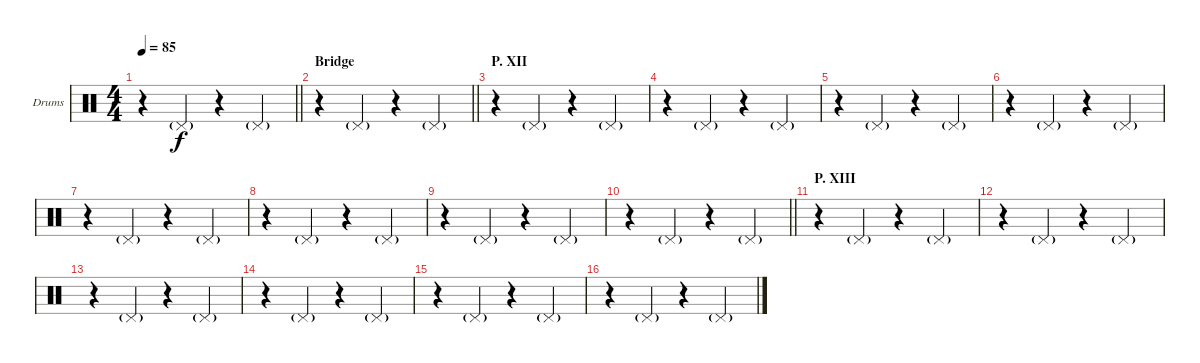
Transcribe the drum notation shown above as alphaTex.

\bracketExtendMode groupsimilarinstruments
\firstSystemTrackNameOrientation horizontal
\otherSystemsTrackNameOrientation horizontal
\track ("Drumkit" "Drums") {instrument percussion}
\staff {score}
\articulation defaults
\ts (4 4)
\tempo 85
\clef neutral
\barLineRight lightlight
\ks c
r.4{dy f} "Pedal Hi-Hat (hit)"{g}.4 r.4 "Pedal Hi-Hat (hit)"{g}.4 |
\section ("" "Bridge")
\barLineRight lightlight
r.4 "Pedal Hi-Hat (hit)"{g}.4 r.4 "Pedal Hi-Hat (hit)"{g}.4 |
\section ("" "P. XII")
r.4 "Pedal Hi-Hat (hit)"{g}.4 r.4 "Pedal Hi-Hat (hit)"{g}.4 |
r.4 "Pedal Hi-Hat (hit)"{g}.4 r.4 "Pedal Hi-Hat (hit)"{g}.4 |
r.4 "Pedal Hi-Hat (hit)"{g}.4 r.4 "Pedal Hi-Hat (hit)"{g}.4 |
r.4 "Pedal Hi-Hat (hit)"{g}.4 r.4 "Pedal Hi-Hat (hit)"{g}.4 |
r.4 "Pedal Hi-Hat (hit)"{g}.4 r.4 "Pedal Hi-Hat (hit)"{g}.4 |
r.4 "Pedal Hi-Hat (hit)"{g}.4 r.4 "Pedal Hi-Hat (hit)"{g}.4 |
r.4 "Pedal Hi-Hat (hit)"{g}.4 r.4 "Pedal Hi-Hat (hit)"{g}.4 |
\barLineRight lightlight
r.4 "Pedal Hi-Hat (hit)"{g}.4 r.4 "Pedal Hi-Hat (hit)"{g}.4 |
\section ("" "P. XIII")
r.4 "Pedal Hi-Hat (hit)"{g}.4 r.4 "Pedal Hi-Hat (hit)"{g}.4 |
r.4 "Pedal Hi-Hat (hit)"{g}.4 r.4 "Pedal Hi-Hat (hit)"{g}.4 |
r.4 "Pedal Hi-Hat (hit)"{g}.4 r.4 "Pedal Hi-Hat (hit)"{g}.4 |
r.4 "Pedal Hi-Hat (hit)"{g}.4 r.4 "Pedal Hi-Hat (hit)"{g}.4 |
r.4 "Pedal Hi-Hat (hit)"{g}.4 r.4 "Pedal Hi-Hat (hit)"{g}.4 |
r.4 "Pedal Hi-Hat (hit)"{g}.4 r.4 "Pedal Hi-Hat (hit)"{g}.4
